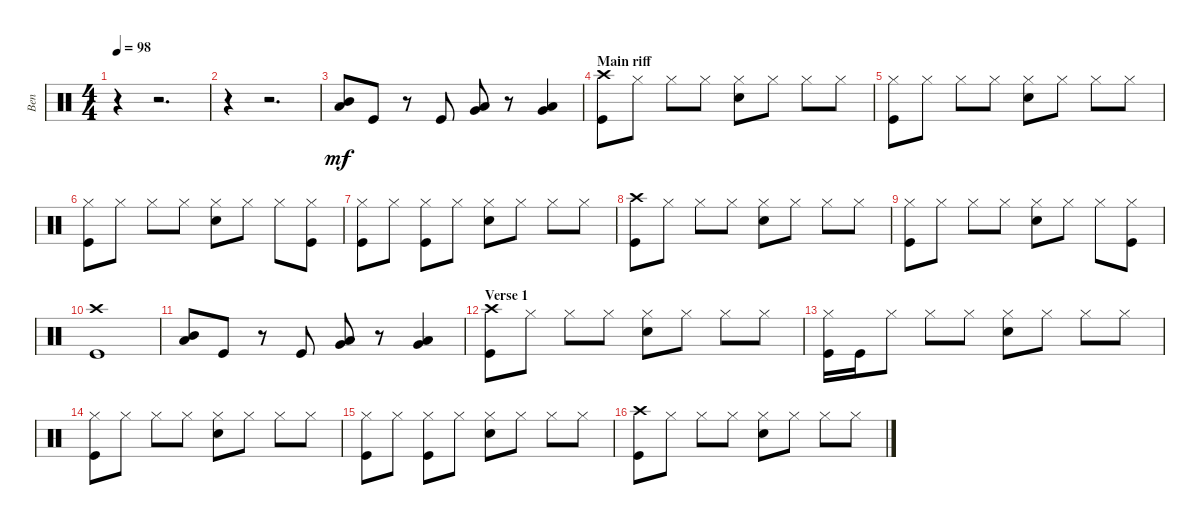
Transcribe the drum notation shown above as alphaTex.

\track ("Ben" "Ben") {instrument percussion}
\staff {score}
\articulation defaults
\ts (4 4)
\tempo 98
\clef neutral
\ks c
r.4{dy mf} r.2{d} |
r.4 r.2{d} |
("Mid Tom (hit)" "Low Tom (hit)").8 "Kick (hit)".8 r.8 "Kick (hit)".8 ("Very Low Tom (hit)" "Low Tom (hit)").8 r.8 ("Very Low Tom (hit)" "Low Floor Tom (hit)").4 |
\section ("" "Main riff")
("Kick (hit)" "Crash high (hit)").8 "Hi-Hat (closed)".8 "Hi-Hat (closed)".8 "Hi-Hat (closed)".8 ("Hi-Hat (closed)" "Snare (hit) 2").8 "Hi-Hat (closed)".8 "Hi-Hat (closed)".8 "Hi-Hat (closed)".8 |
("Kick (hit)" "Hi-Hat (closed)").8 "Hi-Hat (closed)".8 "Hi-Hat (closed)".8 "Hi-Hat (closed)".8 ("Hi-Hat (closed)" "Snare (hit) 2").8 "Hi-Hat (closed)".8 "Hi-Hat (closed)".8 "Hi-Hat (closed)".8 |
("Kick (hit)" "Hi-Hat (closed)").8 "Hi-Hat (closed)".8 "Hi-Hat (closed)".8 "Hi-Hat (closed)".8 ("Hi-Hat (closed)" "Snare (hit) 2").8 "Hi-Hat (closed)".8 "Hi-Hat (closed)".8 ("Hi-Hat (closed)" "Kick (hit)").8 |
("Kick (hit)" "Hi-Hat (closed)").8 "Hi-Hat (closed)".8 ("Hi-Hat (closed)" "Kick (hit)").8 "Hi-Hat (closed)".8 ("Hi-Hat (closed)" "Snare (hit) 2").8 "Hi-Hat (closed)".8 "Hi-Hat (closed)".8 "Hi-Hat (closed)".8 |
("Kick (hit)" "Crash high (hit)").8 "Hi-Hat (closed)".8 "Hi-Hat (closed)".8 "Hi-Hat (closed)".8 ("Hi-Hat (closed)" "Snare (hit) 2").8 "Hi-Hat (closed)".8 "Hi-Hat (closed)".8 "Hi-Hat (closed)".8 |
("Kick (hit)" "Hi-Hat (closed)").8 "Hi-Hat (closed)".8 "Hi-Hat (closed)".8 "Hi-Hat (closed)".8 ("Hi-Hat (closed)" "Snare (hit) 2").8 "Hi-Hat (closed)".8 "Hi-Hat (closed)".8 ("Hi-Hat (closed)" "Kick (hit)").8 |
("Kick (hit)" "Crash high (hit)").1 |
("Mid Tom (hit)" "Low Tom (hit)").8 "Kick (hit)".8 r.8 "Kick (hit)".8 ("Very Low Tom (hit)" "Low Tom (hit)").8 r.8 ("Very Low Tom (hit)" "Low Floor Tom (hit)").4 |
\section ("" "Verse 1")
("Kick (hit)" "Crash high (hit)").8 "Hi-Hat (closed)".8 "Hi-Hat (closed)".8 "Hi-Hat (closed)".8 ("Hi-Hat (closed)" "Snare (hit) 2").8 "Hi-Hat (closed)".8 "Hi-Hat (closed)".8 "Hi-Hat (closed)".8 |
("Kick (hit)" "Hi-Hat (closed)").16 "Kick (hit)".16 "Hi-Hat (closed)".8 "Hi-Hat (closed)".8 "Hi-Hat (closed)".8 ("Hi-Hat (closed)" "Snare (hit) 2").8 "Hi-Hat (closed)".8 "Hi-Hat (closed)".8 "Hi-Hat (closed)".8 |
("Kick (hit)" "Hi-Hat (closed)").8 "Hi-Hat (closed)".8 "Hi-Hat (closed)".8 "Hi-Hat (closed)".8 ("Hi-Hat (closed)" "Snare (hit) 2").8 "Hi-Hat (closed)".8 "Hi-Hat (closed)".8 "Hi-Hat (closed)".8 |
("Kick (hit)" "Hi-Hat (closed)").8 "Hi-Hat (closed)".8 ("Kick (hit)" "Hi-Hat (closed)").8 "Hi-Hat (closed)".8 ("Snare (hit) 2" "Hi-Hat (closed)").8 "Hi-Hat (closed)".8 "Hi-Hat (closed)".8 "Hi-Hat (closed)".8 |
("Kick (hit)" "Crash high (hit)").8 "Hi-Hat (closed)".8 "Hi-Hat (closed)".8 "Hi-Hat (closed)".8 ("Hi-Hat (closed)" "Snare (hit) 2").8 "Hi-Hat (closed)".8 "Hi-Hat (closed)".8 "Hi-Hat (closed)".8
